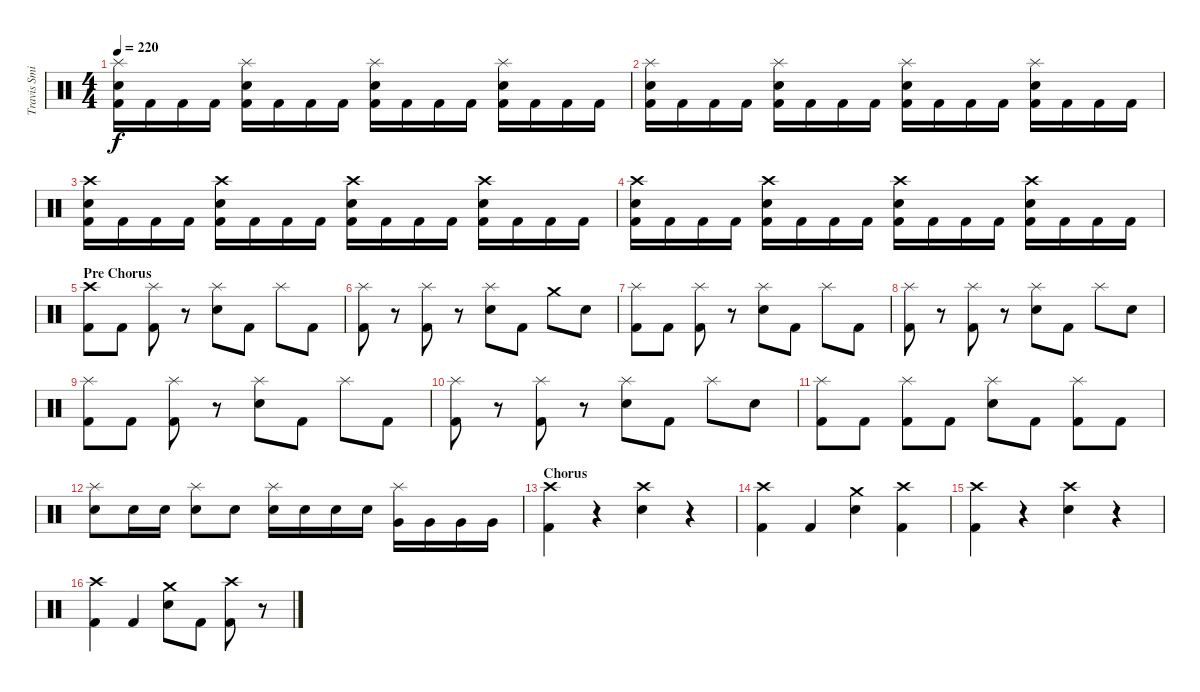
\track ("Travis Smith" "Travis Smi") {instrument percussion}
\staff {score}
\articulation defaults
\ts (4 4)
\tempo 220
\clef neutral
\ks c
("Splash (hit)" "Electric Snare (hit)" "Kick (hit) 2").16{dy f} "Kick (hit) 2".16 "Kick (hit) 2".16 "Kick (hit) 2".16 ("Splash (hit)" "Electric Snare (hit)" "Kick (hit) 2").16 "Kick (hit) 2".16 "Kick (hit) 2".16 "Kick (hit) 2".16 ("Splash (hit)" "Electric Snare (hit)" "Kick (hit) 2").16 "Kick (hit) 2".16 "Kick (hit) 2".16 "Kick (hit) 2".16 ("Splash (hit)" "Electric Snare (hit)" "Kick (hit) 2").16 "Kick (hit) 2".16 "Kick (hit) 2".16 "Kick (hit) 2".16 |
("Splash (hit)" "Electric Snare (hit)" "Kick (hit) 2").16 "Kick (hit) 2".16 "Kick (hit) 2".16 "Kick (hit) 2".16 ("Splash (hit)" "Electric Snare (hit)" "Kick (hit) 2").16 "Kick (hit) 2".16 "Kick (hit) 2".16 "Kick (hit) 2".16 ("Splash (hit)" "Electric Snare (hit)" "Kick (hit) 2").16 "Kick (hit) 2".16 "Kick (hit) 2".16 "Kick (hit) 2".16 ("Splash (hit)" "Electric Snare (hit)" "Kick (hit) 2").16 "Kick (hit) 2".16 "Kick (hit) 2".16 "Kick (hit) 2".16 |
("Crash high (hit)" "Electric Snare (hit)" "Kick (hit) 2").16 "Kick (hit) 2".16 "Kick (hit) 2".16 "Kick (hit) 2".16 ("Crash high (hit)" "Electric Snare (hit)" "Kick (hit) 2").16 "Kick (hit) 2".16 "Kick (hit) 2".16 "Kick (hit) 2".16 ("Crash high (hit)" "Electric Snare (hit)" "Kick (hit) 2").16 "Kick (hit) 2".16 "Kick (hit) 2".16 "Kick (hit) 2".16 ("Crash high (hit)" "Electric Snare (hit)" "Kick (hit) 2").16 "Kick (hit) 2".16 "Kick (hit) 2".16 "Kick (hit) 2".16 |
("Crash high (hit)" "Electric Snare (hit)" "Kick (hit) 2").16 "Kick (hit) 2".16 "Kick (hit) 2".16 "Kick (hit) 2".16 ("Crash high (hit)" "Electric Snare (hit)" "Kick (hit) 2").16 "Kick (hit) 2".16 "Kick (hit) 2".16 "Kick (hit) 2".16 ("Crash high (hit)" "Electric Snare (hit)" "Kick (hit) 2").16 "Kick (hit) 2".16 "Kick (hit) 2".16 "Kick (hit) 2".16 ("Crash high (hit)" "Electric Snare (hit)" "Kick (hit) 2").16 "Kick (hit) 2".16 "Kick (hit) 2".16 "Kick (hit) 2".16 |
\section ("" "Pre Chorus")
("Crash high (hit)" "Kick (hit) 2").8 "Kick (hit) 2".8 ("Splash (hit)" "Kick (hit) 2").8 r.8 ("Splash (hit)" "Electric Snare (hit)").8 "Kick (hit) 2".8 "Splash (hit)".8 "Kick (hit) 2".8 |
("Splash (hit)" "Kick (hit) 2").8 r.8 ("Splash (hit)" "Kick (hit) 2").8 r.8 ("Splash (hit)" "Electric Snare (hit)").8 "Kick (hit) 2".8 "Crash medium (hit)".8 "Electric Snare (hit)".8 |
("Splash (hit)" "Kick (hit) 2").8 "Kick (hit) 2".8 ("Splash (hit)" "Kick (hit) 2").8 r.8 ("Splash (hit)" "Electric Snare (hit)").8 "Kick (hit) 2".8 "Splash (hit)".8 "Kick (hit) 2".8 |
("Splash (hit)" "Kick (hit) 2").8 r.8 ("Splash (hit)" "Kick (hit) 2").8 r.8 ("Splash (hit)" "Electric Snare (hit)").8 "Kick (hit) 2".8 "Splash (hit)".8 "Electric Snare (hit)".8 |
("Splash (hit)" "Kick (hit) 2").8 "Kick (hit) 2".8 ("Splash (hit)" "Kick (hit) 2").8 r.8 ("Splash (hit)" "Electric Snare (hit)").8 "Kick (hit) 2".8 "Splash (hit)".8 "Kick (hit) 2".8 |
("Splash (hit)" "Kick (hit) 2").8 r.8 ("Splash (hit)" "Kick (hit) 2").8 r.8 ("Splash (hit)" "Electric Snare (hit)").8 "Kick (hit) 2".8 "Splash (hit)".8 "Electric Snare (hit)".8 |
("Splash (hit)" "Kick (hit) 2").8 "Kick (hit) 2".8 ("Splash (hit)" "Kick (hit) 2").8 "Kick (hit) 2".8 ("Splash (hit)" "Electric Snare (hit)").8 "Kick (hit) 2".8 ("Splash (hit)" "Kick (hit) 2").8 "Kick (hit) 2".8 |
("Splash (hit)" "Electric Snare (hit)").8 "Electric Snare (hit)".16 "Electric Snare (hit)".16 ("Splash (hit)" "Electric Snare (hit)").8 "Electric Snare (hit)".8 ("Splash (hit)" "Electric Snare (hit)").16 "Electric Snare (hit)".16 "Electric Snare (hit)".16 "Electric Snare (hit)".16 ("Splash (hit)" "Very Low Tom (hit)").16 "Very Low Tom (hit)".16 "Very Low Tom (hit)".16 "Very Low Tom (hit)".16 |
\section ("" "Chorus")
("Crash high (hit)" "Kick (hit) 2").4 r.4 ("Crash high (hit)" "Electric Snare (hit)").4 r.4 |
("Crash high (hit)" "Kick (hit) 2").4 "Kick (hit) 2".4 ("Crash medium (hit)" "Electric Snare (hit)").4 ("Crash high (hit)" "Kick (hit) 2").4 |
("Crash high (hit)" "Kick (hit) 2").4 r.4 ("Crash high (hit)" "Electric Snare (hit)").4 r.4 |
("Crash high (hit)" "Kick (hit) 2").4 "Kick (hit) 2".4 ("Crash medium (hit)" "Electric Snare (hit)").8 "Kick (hit) 2".8 ("Crash high (hit)" "Kick (hit) 2").8 r.8
